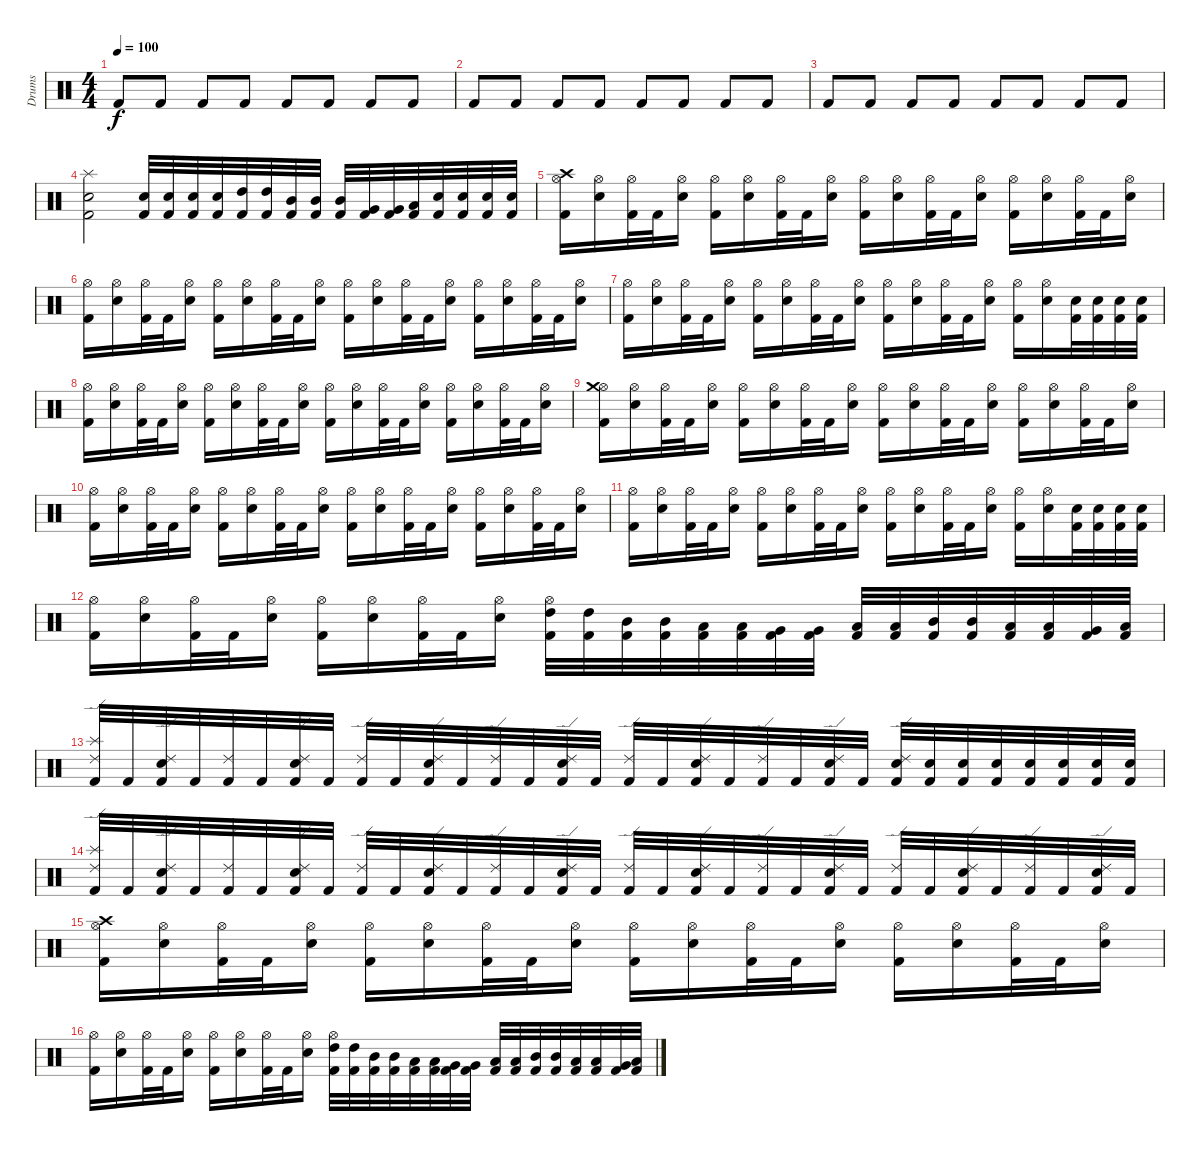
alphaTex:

\track ("Drums" "Drums") {instrument percussion}
\staff {score}
\articulation defaults
\ts (4 4)
\section ("" "")
\tempo 100
\clef neutral
\ks c "Kick (hit) 2".8{dy f} "Kick (hit) 2".8 "Kick (hit) 2".8 "Kick (hit) 2".8 "Kick (hit) 2".8 "Kick (hit) 2".8 "Kick (hit) 2".8 "Kick (hit) 2".8
|
"Kick (hit) 2".8 "Kick (hit) 2".8 "Kick (hit) 2".8 "Kick (hit) 2".8 "Kick (hit) 2".8 "Kick (hit) 2".8 "Kick (hit) 2".8 "Kick (hit) 2".8 |
"Kick (hit) 2".8 "Kick (hit) 2".8 "Kick (hit) 2".8 "Kick (hit) 2".8 "Kick (hit) 2".8 "Kick (hit) 2".8 "Kick (hit) 2".8 "Kick (hit) 2".8 |
("Kick (hit) 2" "Snare (hit) 2" "Splash (hit)").2 ("Kick (hit) 2" "Snare (hit) 2").32 ("Kick (hit) 2" "Snare (hit) 2").32 ("Kick (hit) 2" "Snare (hit) 2").32 ("Kick (hit) 2" "Snare (hit) 2").32 ("Kick (hit) 2" "High Tom (hit)").32 ("Kick (hit) 2" "High Tom (hit)").32 ("Kick (hit) 2" "Mid Tom (hit)").32 ("Kick (hit) 2" "Mid Tom (hit)").32 ("Kick (hit) 2" "Mid Tom (hit)").32 ("Kick (hit) 2" "Very Low Tom (hit)").32 ("Kick (hit) 2" "Very Low Tom (hit)").32 ("Kick (hit) 2" "Low Floor Tom (hit)").32 ("Kick (hit) 2" "Snare (hit) 2").32 ("Kick (hit) 2" "Snare (hit) 2").32 ("Kick (hit) 2" "Snare (hit) 2").32 ("Kick (hit) 2" "Snare (hit) 2").32 |
\section ("" "")
("Kick (hit) 2" "Hi-Hat (open)" "Crash high (hit)").16 ("Snare (hit) 2" "Hi-Hat (open)").16 ("Kick (hit) 2" "Hi-Hat (open)").32 "Kick (hit) 2".32 ("Snare (hit) 2" "Hi-Hat (open)").16 ("Kick (hit) 2" "Hi-Hat (open)").16 ("Snare (hit) 2" "Hi-Hat (open)").16 ("Kick (hit) 2" "Hi-Hat (open)").32 "Kick (hit) 2".32 ("Snare (hit) 2" "Hi-Hat (open)").16 ("Kick (hit) 2" "Hi-Hat (open)").16 ("Snare (hit) 2" "Hi-Hat (open)").16 ("Kick (hit) 2" "Hi-Hat (open)").32 "Kick (hit) 2".32 ("Snare (hit) 2" "Hi-Hat (open)").16 ("Kick (hit) 2" "Hi-Hat (open)").16 ("Snare (hit) 2" "Hi-Hat (open)").16 ("Kick (hit) 2" "Hi-Hat (open)").32 "Kick (hit) 2".32 ("Snare (hit) 2" "Hi-Hat (open)").16 |
("Kick (hit) 2" "Hi-Hat (open)").16 ("Snare (hit) 2" "Hi-Hat (open)").16 ("Kick (hit) 2" "Hi-Hat (open)").32 "Kick (hit) 2".32 ("Snare (hit) 2" "Hi-Hat (open)").16 ("Kick (hit) 2" "Hi-Hat (open)").16 ("Snare (hit) 2" "Hi-Hat (open)").16 ("Kick (hit) 2" "Hi-Hat (open)").32 "Kick (hit) 2".32 ("Snare (hit) 2" "Hi-Hat (open)").16 ("Kick (hit) 2" "Hi-Hat (open)").16 ("Snare (hit) 2" "Hi-Hat (open)").16 ("Kick (hit) 2" "Hi-Hat (open)").32 "Kick (hit) 2".32 ("Snare (hit) 2" "Hi-Hat (open)").16 ("Kick (hit) 2" "Hi-Hat (open)").16 ("Snare (hit) 2" "Hi-Hat (open)").16 ("Kick (hit) 2" "Hi-Hat (open)").32 "Kick (hit) 2".32 ("Snare (hit) 2" "Hi-Hat (open)").16 |
("Kick (hit) 2" "Hi-Hat (open)").16 ("Snare (hit) 2" "Hi-Hat (open)").16 ("Kick (hit) 2" "Hi-Hat (open)").32 "Kick (hit) 2".32 ("Snare (hit) 2" "Hi-Hat (open)").16 ("Kick (hit) 2" "Hi-Hat (open)").16 ("Snare (hit) 2" "Hi-Hat (open)").16 ("Kick (hit) 2" "Hi-Hat (open)").32 "Kick (hit) 2".32 ("Snare (hit) 2" "Hi-Hat (open)").16 ("Kick (hit) 2" "Hi-Hat (open)").16 ("Snare (hit) 2" "Hi-Hat (open)").16 ("Kick (hit) 2" "Hi-Hat (open)").32 "Kick (hit) 2".32 ("Snare (hit) 2" "Hi-Hat (open)").16 ("Kick (hit) 2" "Hi-Hat (open)").16 ("Snare (hit) 2" "Hi-Hat (open)").16 ("Kick (hit) 2" "Snare (hit) 2").32 ("Kick (hit) 2" "Snare (hit) 2").32 ("Kick (hit) 2" "Snare (hit) 2").32 ("Kick (hit) 2" "Snare (hit) 2").32 |
("Kick (hit) 2" "Hi-Hat (open)").16 ("Snare (hit) 2" "Hi-Hat (open)").16 ("Kick (hit) 2" "Hi-Hat (open)").32 "Kick (hit) 2".32 ("Snare (hit) 2" "Hi-Hat (open)").16 ("Kick (hit) 2" "Hi-Hat (open)").16 ("Snare (hit) 2" "Hi-Hat (open)").16 ("Kick (hit) 2" "Hi-Hat (open)").32 "Kick (hit) 2".32 ("Snare (hit) 2" "Hi-Hat (open)").16 ("Kick (hit) 2" "Hi-Hat (open)").16 ("Snare (hit) 2" "Hi-Hat (open)").16 ("Kick (hit) 2" "Hi-Hat (open)").32 "Kick (hit) 2".32 ("Snare (hit) 2" "Hi-Hat (open)").16 ("Kick (hit) 2" "Hi-Hat (open)").16 ("Snare (hit) 2" "Hi-Hat (open)").16 ("Kick (hit) 2" "Hi-Hat (open)").32 "Kick (hit) 2".32 ("Snare (hit) 2" "Hi-Hat (open)").16 |
("Kick (hit) 2" "Hi-Hat (open)" "Crash medium (hit)").16 ("Snare (hit) 2" "Hi-Hat (open)").16 ("Kick (hit) 2" "Hi-Hat (open)").32 "Kick (hit) 2".32 ("Snare (hit) 2" "Hi-Hat (open)").16 ("Kick (hit) 2" "Hi-Hat (open)").16 ("Snare (hit) 2" "Hi-Hat (open)").16 ("Kick (hit) 2" "Hi-Hat (open)").32 "Kick (hit) 2".32 ("Snare (hit) 2" "Hi-Hat (open)").16 ("Kick (hit) 2" "Hi-Hat (open)").16 ("Snare (hit) 2" "Hi-Hat (open)").16 ("Kick (hit) 2" "Hi-Hat (open)").32 "Kick (hit) 2".32 ("Snare (hit) 2" "Hi-Hat (open)").16 ("Kick (hit) 2" "Hi-Hat (open)").16 ("Snare (hit) 2" "Hi-Hat (open)").16 ("Kick (hit) 2" "Hi-Hat (open)").32 "Kick (hit) 2".32 ("Snare (hit) 2" "Hi-Hat (open)").16 |
("Kick (hit) 2" "Hi-Hat (open)").16 ("Snare (hit) 2" "Hi-Hat (open)").16 ("Kick (hit) 2" "Hi-Hat (open)").32 "Kick (hit) 2".32 ("Snare (hit) 2" "Hi-Hat (open)").16 ("Kick (hit) 2" "Hi-Hat (open)").16 ("Snare (hit) 2" "Hi-Hat (open)").16 ("Kick (hit) 2" "Hi-Hat (open)").32 "Kick (hit) 2".32 ("Snare (hit) 2" "Hi-Hat (open)").16 ("Kick (hit) 2" "Hi-Hat (open)").16 ("Snare (hit) 2" "Hi-Hat (open)").16 ("Kick (hit) 2" "Hi-Hat (open)").32 "Kick (hit) 2".32 ("Snare (hit) 2" "Hi-Hat (open)").16 ("Kick (hit) 2" "Hi-Hat (open)").16 ("Snare (hit) 2" "Hi-Hat (open)").16 ("Kick (hit) 2" "Hi-Hat (open)").32 "Kick (hit) 2".32 ("Snare (hit) 2" "Hi-Hat (open)").16 |
("Kick (hit) 2" "Hi-Hat (open)").16 ("Snare (hit) 2" "Hi-Hat (open)").16 ("Kick (hit) 2" "Hi-Hat (open)").32 "Kick (hit) 2".32 ("Snare (hit) 2" "Hi-Hat (open)").16 ("Kick (hit) 2" "Hi-Hat (open)").16 ("Snare (hit) 2" "Hi-Hat (open)").16 ("Kick (hit) 2" "Hi-Hat (open)").32 "Kick (hit) 2".32 ("Snare (hit) 2" "Hi-Hat (open)").16 ("Kick (hit) 2" "Hi-Hat (open)").16 ("Snare (hit) 2" "Hi-Hat (open)").16 ("Kick (hit) 2" "Hi-Hat (open)").32 "Kick (hit) 2".32 ("Snare (hit) 2" "Hi-Hat (open)").16 ("Kick (hit) 2" "Hi-Hat (open)").16 ("Snare (hit) 2" "Hi-Hat (open)").16 ("Kick (hit) 2" "Snare (hit) 2").32 ("Kick (hit) 2" "Snare (hit) 2").32 ("Kick (hit) 2" "Snare (hit) 2").32 ("Kick (hit) 2" "Snare (hit) 2").32 |
("Kick (hit) 2" "Hi-Hat (open)").16 ("Snare (hit) 2" "Hi-Hat (open)").16 ("Kick (hit) 2" "Hi-Hat (open)").32 "Kick (hit) 2".32 ("Snare (hit) 2" "Hi-Hat (open)").16 ("Kick (hit) 2" "Hi-Hat (open)").16 ("Snare (hit) 2" "Hi-Hat (open)").16 ("Kick (hit) 2" "Hi-Hat (open)").32 "Kick (hit) 2".32 ("Snare (hit) 2" "Hi-Hat (open)").16 ("Kick (hit) 2" "High Tom (hit)" "Hi-Hat (open)").32 ("Kick (hit) 2" "High Tom (hit)").32 ("Kick (hit) 2" "Mid Tom (hit)").32 ("Kick (hit) 2" "Mid Tom (hit)").32 ("Kick (hit) 2" "Low Tom (hit)").32 ("Kick (hit) 2" "Low Tom (hit)").32 ("Kick (hit) 2" "Very Low Tom (hit)").32 ("Kick (hit) 2" "Very Low Tom (hit)").32 ("Kick (hit) 2" "Low Floor Tom (hit)").32 ("Kick (hit) 2" "Low Floor Tom (hit)").32 ("Kick (hit) 2" "Mid Tom (hit)").32 ("Kick (hit) 2" "Mid Tom (hit)").32 ("Kick (hit) 2" "Low Tom (hit)").32 ("Kick (hit) 2" "Low Tom (hit)").32 ("Kick (hit) 2" "Very Low Tom (hit)").32 ("Kick (hit) 2" "Low Floor Tom (hit)").32 |
\section ("" "")
("Kick (hit) 2" "Ride (edge) 2" "Splash (hit)").32 "Kick (hit) 2".32 ("Kick (hit) 2" "Snare (hit) 2" "Ride (edge) 2").32 "Kick (hit) 2".32 ("Kick (hit) 2" "Ride (edge) 2").32 "Kick (hit) 2".32 ("Kick (hit) 2" "Snare (hit) 2" "Ride (edge) 2").32 "Kick (hit) 2".32 ("Kick (hit) 2" "Ride (edge) 2").32 "Kick (hit) 2".32 ("Kick (hit) 2" "Snare (hit) 2" "Ride (edge) 2").32 "Kick (hit) 2".32 ("Kick (hit) 2" "Ride (edge) 2").32 "Kick (hit) 2".32 ("Kick (hit) 2" "Snare (hit) 2" "Ride (edge) 2").32 "Kick (hit) 2".32 ("Kick (hit) 2" "Ride (edge) 2").32 "Kick (hit) 2".32 ("Kick (hit) 2" "Snare (hit) 2" "Ride (edge) 2").32 "Kick (hit) 2".32 ("Kick (hit) 2" "Ride (edge) 2").32 "Kick (hit) 2".32 ("Kick (hit) 2" "Snare (hit) 2" "Ride (edge) 2").32 "Kick (hit) 2".32 ("Kick (hit) 2" "Snare (hit) 2" "Ride (edge) 2").32 ("Kick (hit) 2" "Snare (hit) 2").32 ("Kick (hit) 2" "Snare (hit) 2").32 ("Kick (hit) 2" "Snare (hit) 2").32 ("Kick (hit) 2" "Snare (hit) 2").32 ("Kick (hit) 2" "Snare (hit) 2").32 ("Kick (hit) 2" "Snare (hit) 2").32 ("Kick (hit) 2" "Snare (hit) 2").32 |
("Kick (hit) 2" "Ride (edge) 2" "Splash (hit)").32 "Kick (hit) 2".32 ("Kick (hit) 2" "Snare (hit) 2" "Ride (edge) 2").32 "Kick (hit) 2".32 ("Kick (hit) 2" "Ride (edge) 2").32 "Kick (hit) 2".32 ("Kick (hit) 2" "Snare (hit) 2" "Ride (edge) 2").32 "Kick (hit) 2".32 ("Kick (hit) 2" "Ride (edge) 2").32 "Kick (hit) 2".32 ("Kick (hit) 2" "Snare (hit) 2" "Ride (edge) 2").32 "Kick (hit) 2".32 ("Kick (hit) 2" "Ride (edge) 2").32 "Kick (hit) 2".32 ("Kick (hit) 2" "Snare (hit) 2" "Ride (edge) 2").32 "Kick (hit) 2".32 ("Kick (hit) 2" "Ride (edge) 2").32 "Kick (hit) 2".32 ("Kick (hit) 2" "Snare (hit) 2" "Ride (edge) 2").32 "Kick (hit) 2".32 ("Kick (hit) 2" "Ride (edge) 2").32 "Kick (hit) 2".32 ("Kick (hit) 2" "Snare (hit) 2" "Ride (edge) 2").32 "Kick (hit) 2".32 ("Kick (hit) 2" "Ride (edge) 2").32 "Kick (hit) 2".32 ("Kick (hit) 2" "Snare (hit) 2" "Ride (edge) 2").32 "Kick (hit) 2".32 ("Kick (hit) 2" "Ride (edge) 2").32 "Kick (hit) 2".32 ("Kick (hit) 2" "Snare (hit) 2" "Ride (edge) 2").32 "Kick (hit) 2".32 |
("Kick (hit) 2" "Hi-Hat (open)" "Crash high (hit)").16 ("Snare (hit) 2" "Hi-Hat (open)").16 ("Kick (hit) 2" "Hi-Hat (open)").32 "Kick (hit) 2".32 ("Snare (hit) 2" "Hi-Hat (open)").16 ("Kick (hit) 2" "Hi-Hat (open)").16 ("Snare (hit) 2" "Hi-Hat (open)").16 ("Kick (hit) 2" "Hi-Hat (open)").32 "Kick (hit) 2".32 ("Snare (hit) 2" "Hi-Hat (open)").16 ("Kick (hit) 2" "Hi-Hat (open)").16 ("Snare (hit) 2" "Hi-Hat (open)").16 ("Kick (hit) 2" "Hi-Hat (open)").32 "Kick (hit) 2".32 ("Snare (hit) 2" "Hi-Hat (open)").16 ("Kick (hit) 2" "Hi-Hat (open)").16 ("Snare (hit) 2" "Hi-Hat (open)").16 ("Kick (hit) 2" "Hi-Hat (open)").32 "Kick (hit) 2".32 ("Snare (hit) 2" "Hi-Hat (open)").16 |
("Kick (hit) 2" "Hi-Hat (open)").16 ("Snare (hit) 2" "Hi-Hat (open)").16 ("Kick (hit) 2" "Hi-Hat (open)").32 "Kick (hit) 2".32 ("Snare (hit) 2" "Hi-Hat (open)").16 ("Kick (hit) 2" "Hi-Hat (open)").16 ("Snare (hit) 2" "Hi-Hat (open)").16 ("Kick (hit) 2" "Hi-Hat (open)").32 "Kick (hit) 2".32 ("Snare (hit) 2" "Hi-Hat (open)").16 ("Kick (hit) 2" "High Tom (hit)" "Hi-Hat (open)").32 ("Kick (hit) 2" "High Tom (hit)").32 ("Kick (hit) 2" "Mid Tom (hit)").32 ("Kick (hit) 2" "Mid Tom (hit)").32 ("Kick (hit) 2" "Low Tom (hit)").32 ("Kick (hit) 2" "Low Tom (hit)").32 ("Kick (hit) 2" "Very Low Tom (hit)").32 ("Kick (hit) 2" "Very Low Tom (hit)").32 ("Kick (hit) 2" "Low Floor Tom (hit)").32 ("Kick (hit) 2" "Low Floor Tom (hit)").32 ("Kick (hit) 2" "Mid Tom (hit)").32 ("Kick (hit) 2" "Mid Tom (hit)").32 ("Kick (hit) 2" "Low Tom (hit)").32 ("Kick (hit) 2" "Low Tom (hit)").32 ("Kick (hit) 2" "Very Low Tom (hit)").32 ("Kick (hit) 2" "Low Floor Tom (hit)").32
